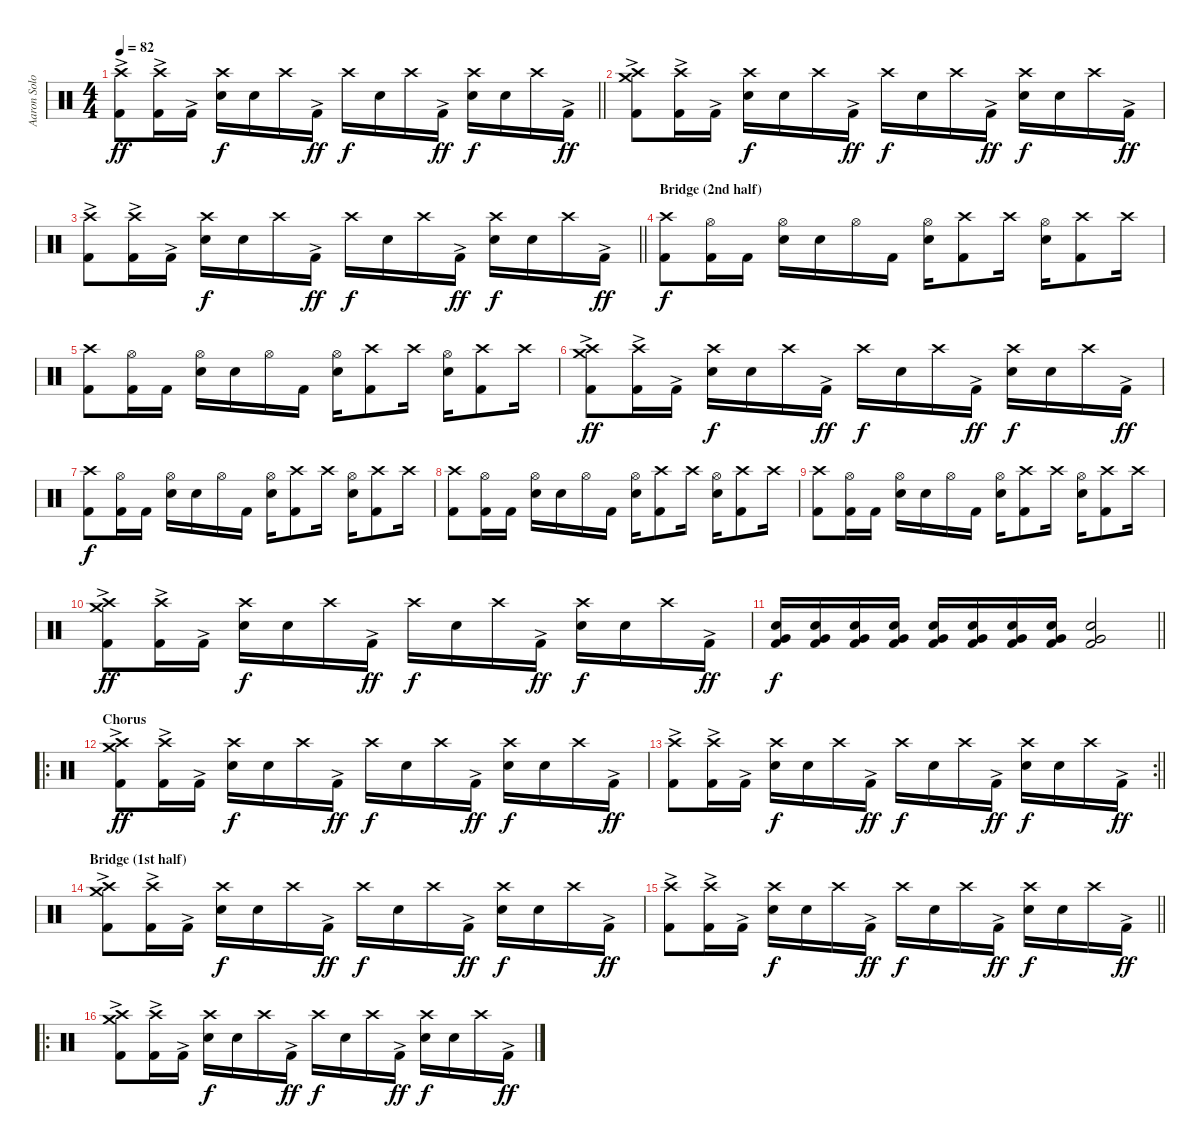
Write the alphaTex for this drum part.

\track ("Aaron Solowoniuk - Drums" "Aaron Solo") {instrument percussion}
\staff {score}
\articulation defaults
\ts (4 4)
\tempo 82
\clef neutral
\barLineRight lightlight
\ks c
("Crash high (hit)" "Kick (hit) 2"{ac}).8{dy ff} ("Crash high (hit)" "Kick (hit) 2"{ac}).16 "Kick (hit) 2"{ac}.16 ("Crash high (hit)" "Snare (hit) 2").16{dy f} "Snare (hit) 2".16 "Crash high (hit)".16 "Kick (hit) 2"{ac}.16{dy ff} "Crash high (hit)".16{dy f} "Snare (hit) 2".16 "Crash high (hit)".16 "Kick (hit) 2"{ac}.16{dy ff} ("Crash high (hit)" "Snare (hit) 2").16{dy f} "Snare (hit) 2".16 "Crash high (hit)".16 "Kick (hit) 2"{ac}.16{dy ff} |
("Crash high (hit)" "Crash medium (hit)" "Kick (hit) 2"{ac}).8 ("Crash high (hit)" "Kick (hit) 2"{ac}).16 "Kick (hit) 2"{ac}.16 ("Crash high (hit)" "Snare (hit) 2").16{dy f} "Snare (hit) 2".16 "Crash high (hit)".16 "Kick (hit) 2"{ac}.16{dy ff} "Crash high (hit)".16{dy f} "Snare (hit) 2".16 "Crash high (hit)".16 "Kick (hit) 2"{ac}.16{dy ff} ("Crash high (hit)" "Snare (hit) 2").16{dy f} "Snare (hit) 2".16 "Crash high (hit)".16 "Kick (hit) 2"{ac}.16{dy ff} |
\barLineRight lightlight
("Crash high (hit)" "Kick (hit) 2"{ac}).8 ("Crash high (hit)" "Kick (hit) 2"{ac}).16 "Kick (hit) 2"{ac}.16 ("Crash high (hit)" "Snare (hit) 2").16{dy f} "Snare (hit) 2".16 "Crash high (hit)".16 "Kick (hit) 2"{ac}.16{dy ff} "Crash high (hit)".16{dy f} "Snare (hit) 2".16 "Crash high (hit)".16 "Kick (hit) 2"{ac}.16{dy ff} ("Crash high (hit)" "Snare (hit) 2").16{dy f} "Snare (hit) 2".16 "Crash high (hit)".16 "Kick (hit) 2"{ac}.16{dy ff} |
\section ("" "Bridge (2nd half)")
("Crash high (hit)" "Kick (hit) 2").8{dy f} ("Hi-Hat (open)" "Kick (hit) 2").16 "Kick (hit) 2".16 ("Hi-Hat (open)" "Snare (hit) 2").16 "Snare (hit) 2".16 "Hi-Hat (open)".16 "Kick (hit) 2".16 ("Hi-Hat (open)" "Snare (hit) 2").16 ("Crash high (hit)" "Kick (hit) 2").8 "Crash high (hit)".16 ("Hi-Hat (open)" "Snare (hit) 2").16 ("Crash high (hit)" "Kick (hit) 2").8 "Crash high (hit)".16 |
("Crash high (hit)" "Kick (hit) 2").8 ("Hi-Hat (open)" "Kick (hit) 2").16 "Kick (hit) 2".16 ("Hi-Hat (open)" "Snare (hit) 2").16 "Snare (hit) 2".16 "Hi-Hat (open)".16 "Kick (hit) 2".16 ("Hi-Hat (open)" "Snare (hit) 2").16 ("Crash high (hit)" "Kick (hit) 2").8 "Crash high (hit)".16 ("Hi-Hat (open)" "Snare (hit) 2").16 ("Crash high (hit)" "Kick (hit) 2").8 "Crash high (hit)".16 |
("Crash high (hit)" "Crash medium (hit)" "Kick (hit) 2"{ac}).8{dy ff} ("Crash high (hit)" "Kick (hit) 2"{ac}).16 "Kick (hit) 2"{ac}.16 ("Crash high (hit)" "Snare (hit) 2").16{dy f} "Snare (hit) 2".16 "Crash high (hit)".16 "Kick (hit) 2"{ac}.16{dy ff} "Crash high (hit)".16{dy f} "Snare (hit) 2".16 "Crash high (hit)".16 "Kick (hit) 2"{ac}.16{dy ff} ("Crash high (hit)" "Snare (hit) 2").16{dy f} "Snare (hit) 2".16 "Crash high (hit)".16 "Kick (hit) 2"{ac}.16{dy ff} |
("Crash high (hit)" "Kick (hit) 2").8{dy f} ("Hi-Hat (open)" "Kick (hit) 2").16 "Kick (hit) 2".16 ("Hi-Hat (open)" "Snare (hit) 2").16 "Snare (hit) 2".16 "Hi-Hat (open)".16 "Kick (hit) 2".16 ("Hi-Hat (open)" "Snare (hit) 2").16 ("Crash high (hit)" "Kick (hit) 2").8 "Crash high (hit)".16 ("Hi-Hat (open)" "Snare (hit) 2").16 ("Crash high (hit)" "Kick (hit) 2").8 "Crash high (hit)".16 |
("Crash high (hit)" "Kick (hit) 2").8 ("Hi-Hat (open)" "Kick (hit) 2").16 "Kick (hit) 2".16 ("Hi-Hat (open)" "Snare (hit) 2").16 "Snare (hit) 2".16 "Hi-Hat (open)".16 "Kick (hit) 2".16 ("Hi-Hat (open)" "Snare (hit) 2").16 ("Crash high (hit)" "Kick (hit) 2").8 "Crash high (hit)".16 ("Hi-Hat (open)" "Snare (hit) 2").16 ("Crash high (hit)" "Kick (hit) 2").8 "Crash high (hit)".16 |
("Crash high (hit)" "Kick (hit) 2").8 ("Hi-Hat (open)" "Kick (hit) 2").16 "Kick (hit) 2".16 ("Hi-Hat (open)" "Snare (hit) 2").16 "Snare (hit) 2".16 "Hi-Hat (open)".16 "Kick (hit) 2".16 ("Hi-Hat (open)" "Snare (hit) 2").16 ("Crash high (hit)" "Kick (hit) 2").8 "Crash high (hit)".16 ("Hi-Hat (open)" "Snare (hit) 2").16 ("Crash high (hit)" "Kick (hit) 2").8 "Crash high (hit)".16 |
("Crash high (hit)" "Crash medium (hit)" "Kick (hit) 2"{ac}).8{dy ff} ("Crash high (hit)" "Kick (hit) 2"{ac}).16 "Kick (hit) 2"{ac}.16 ("Crash high (hit)" "Snare (hit) 2").16{dy f} "Snare (hit) 2".16 "Crash high (hit)".16 "Kick (hit) 2"{ac}.16{dy ff} "Crash high (hit)".16{dy f} "Snare (hit) 2".16 "Crash high (hit)".16 "Kick (hit) 2"{ac}.16{dy ff} ("Crash high (hit)" "Snare (hit) 2").16{dy f} "Snare (hit) 2".16 "Crash high (hit)".16 "Kick (hit) 2"{ac}.16{dy ff} |
\barLineRight lightlight
("Snare (hit) 2" "Very Low Tom (hit)" "Kick (hit) 2").16{dy f} ("Snare (hit) 2" "Very Low Tom (hit)" "Kick (hit) 2").16 ("Snare (hit) 2" "Very Low Tom (hit)" "Kick (hit) 2").16 ("Snare (hit) 2" "Very Low Tom (hit)" "Kick (hit) 2").16 ("Snare (hit) 2" "Very Low Tom (hit)" "Kick (hit) 2").16 ("Snare (hit) 2" "Very Low Tom (hit)" "Kick (hit) 2").16 ("Snare (hit) 2" "Very Low Tom (hit)" "Kick (hit) 2").16 ("Snare (hit) 2" "Very Low Tom (hit)" "Kick (hit) 2").16 ("Snare (hit) 2" "Very Low Tom (hit)" "Kick (hit) 2").2 |
\ro
\section ("" "Chorus")
("Crash high (hit)" "Crash medium (hit)" "Kick (hit) 2"{ac}).8{dy ff} ("Crash high (hit)" "Kick (hit) 2"{ac}).16 "Kick (hit) 2"{ac}.16 ("Crash high (hit)" "Snare (hit) 2").16{dy f} "Snare (hit) 2".16 "Crash high (hit)".16 "Kick (hit) 2"{ac}.16{dy ff} "Crash high (hit)".16{dy f} "Snare (hit) 2".16 "Crash high (hit)".16 "Kick (hit) 2"{ac}.16{dy ff} ("Crash high (hit)" "Snare (hit) 2").16{dy f} "Snare (hit) 2".16 "Crash high (hit)".16 "Kick (hit) 2"{ac}.16{dy ff} |
\rc 2
\barLineRight lightlight
("Crash high (hit)" "Kick (hit) 2"{ac}).8 ("Crash high (hit)" "Kick (hit) 2"{ac}).16 "Kick (hit) 2"{ac}.16 ("Crash high (hit)" "Snare (hit) 2").16{dy f} "Snare (hit) 2".16 "Crash high (hit)".16 "Kick (hit) 2"{ac}.16{dy ff} "Crash high (hit)".16{dy f} "Snare (hit) 2".16 "Crash high (hit)".16 "Kick (hit) 2"{ac}.16{dy ff} ("Crash high (hit)" "Snare (hit) 2").16{dy f} "Snare (hit) 2".16 "Crash high (hit)".16 "Kick (hit) 2"{ac}.16{dy ff} |
\section ("" "Bridge (1st half)")
("Crash high (hit)" "Crash medium (hit)" "Kick (hit) 2"{ac}).8 ("Crash high (hit)" "Kick (hit) 2"{ac}).16 "Kick (hit) 2"{ac}.16 ("Crash high (hit)" "Snare (hit) 2").16{dy f} "Snare (hit) 2".16 "Crash high (hit)".16 "Kick (hit) 2"{ac}.16{dy ff} "Crash high (hit)".16{dy f} "Snare (hit) 2".16 "Crash high (hit)".16 "Kick (hit) 2"{ac}.16{dy ff} ("Crash high (hit)" "Snare (hit) 2").16{dy f} "Snare (hit) 2".16 "Crash high (hit)".16 "Kick (hit) 2"{ac}.16{dy ff} |
\barLineRight lightlight
("Crash high (hit)" "Kick (hit) 2"{ac}).8 ("Crash high (hit)" "Kick (hit) 2"{ac}).16 "Kick (hit) 2"{ac}.16 ("Crash high (hit)" "Snare (hit) 2").16{dy f} "Snare (hit) 2".16 "Crash high (hit)".16 "Kick (hit) 2"{ac}.16{dy ff} "Crash high (hit)".16{dy f} "Snare (hit) 2".16 "Crash high (hit)".16 "Kick (hit) 2"{ac}.16{dy ff} ("Crash high (hit)" "Snare (hit) 2").16{dy f} "Snare (hit) 2".16 "Crash high (hit)".16 "Kick (hit) 2"{ac}.16{dy ff} |
\ro
("Crash high (hit)" "Crash medium (hit)" "Kick (hit) 2"{ac}).8 ("Crash high (hit)" "Kick (hit) 2"{ac}).16 "Kick (hit) 2"{ac}.16 ("Crash high (hit)" "Snare (hit) 2").16{dy f} "Snare (hit) 2".16 "Crash high (hit)".16 "Kick (hit) 2"{ac}.16{dy ff} "Crash high (hit)".16{dy f} "Snare (hit) 2".16 "Crash high (hit)".16 "Kick (hit) 2"{ac}.16{dy ff} ("Crash high (hit)" "Snare (hit) 2").16{dy f} "Snare (hit) 2".16 "Crash high (hit)".16 "Kick (hit) 2"{ac}.16{dy ff}
